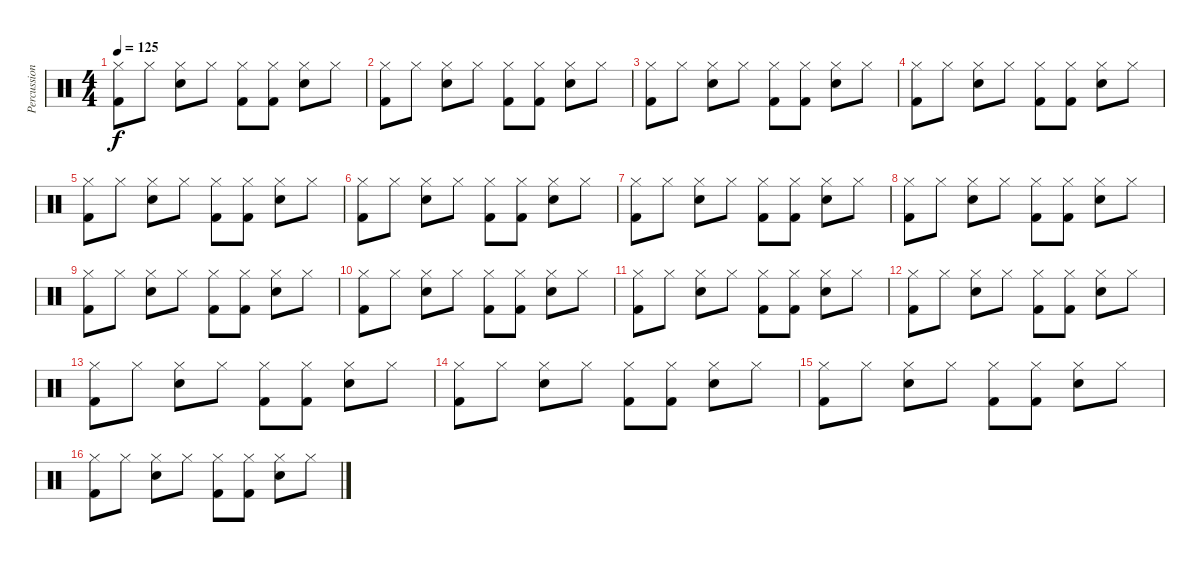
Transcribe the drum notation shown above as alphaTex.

\track ("Percussion" "Percussion") {instrument percussion}
\staff {score}
\articulation defaults
\ts (4 4)
\tempo 125
\clef neutral
\ks c
("Hi-Hat (closed)" "Kick (hit) 2").8{dy f} "Hi-Hat (closed)".8 ("Hi-Hat (closed)" "Snare (hit) 2").8 "Hi-Hat (closed)".8 ("Hi-Hat (closed)" "Kick (hit) 2").8 ("Hi-Hat (closed)" "Kick (hit) 2").8 ("Hi-Hat (closed)" "Snare (hit) 2").8 "Hi-Hat (closed)".8 |
("Hi-Hat (closed)" "Kick (hit) 2").8 "Hi-Hat (closed)".8 ("Hi-Hat (closed)" "Snare (hit) 2").8 "Hi-Hat (closed)".8 ("Hi-Hat (closed)" "Kick (hit) 2").8 ("Hi-Hat (closed)" "Kick (hit) 2").8 ("Hi-Hat (closed)" "Snare (hit) 2").8 "Hi-Hat (closed)".8 |
("Hi-Hat (closed)" "Kick (hit) 2").8 "Hi-Hat (closed)".8 ("Hi-Hat (closed)" "Snare (hit) 2").8 "Hi-Hat (closed)".8 ("Hi-Hat (closed)" "Kick (hit) 2").8 ("Hi-Hat (closed)" "Kick (hit) 2").8 ("Hi-Hat (closed)" "Snare (hit) 2").8 "Hi-Hat (closed)".8 |
("Hi-Hat (closed)" "Kick (hit) 2").8 "Hi-Hat (closed)".8 ("Hi-Hat (closed)" "Snare (hit) 2").8 "Hi-Hat (closed)".8 ("Hi-Hat (closed)" "Kick (hit) 2").8 ("Hi-Hat (closed)" "Kick (hit) 2").8 ("Hi-Hat (closed)" "Snare (hit) 2").8 "Hi-Hat (closed)".8 |
("Hi-Hat (closed)" "Kick (hit) 2").8 "Hi-Hat (closed)".8 ("Hi-Hat (closed)" "Snare (hit) 2").8 "Hi-Hat (closed)".8 ("Hi-Hat (closed)" "Kick (hit) 2").8 ("Hi-Hat (closed)" "Kick (hit) 2").8 ("Hi-Hat (closed)" "Snare (hit) 2").8 "Hi-Hat (closed)".8 |
("Hi-Hat (closed)" "Kick (hit) 2").8 "Hi-Hat (closed)".8 ("Hi-Hat (closed)" "Snare (hit) 2").8 "Hi-Hat (closed)".8 ("Hi-Hat (closed)" "Kick (hit) 2").8 ("Hi-Hat (closed)" "Kick (hit) 2").8 ("Hi-Hat (closed)" "Snare (hit) 2").8 "Hi-Hat (closed)".8 |
("Hi-Hat (closed)" "Kick (hit) 2").8 "Hi-Hat (closed)".8 ("Hi-Hat (closed)" "Snare (hit) 2").8 "Hi-Hat (closed)".8 ("Hi-Hat (closed)" "Kick (hit) 2").8 ("Hi-Hat (closed)" "Kick (hit) 2").8 ("Hi-Hat (closed)" "Snare (hit) 2").8 "Hi-Hat (closed)".8 |
("Hi-Hat (closed)" "Kick (hit) 2").8 "Hi-Hat (closed)".8 ("Hi-Hat (closed)" "Snare (hit) 2").8 "Hi-Hat (closed)".8 ("Hi-Hat (closed)" "Kick (hit) 2").8 ("Hi-Hat (closed)" "Kick (hit) 2").8 ("Hi-Hat (closed)" "Snare (hit) 2").8 "Hi-Hat (closed)".8 |
("Hi-Hat (closed)" "Kick (hit) 2").8 "Hi-Hat (closed)".8 ("Hi-Hat (closed)" "Snare (hit) 2").8 "Hi-Hat (closed)".8 ("Hi-Hat (closed)" "Kick (hit) 2").8 ("Hi-Hat (closed)" "Kick (hit) 2").8 ("Hi-Hat (closed)" "Snare (hit) 2").8 "Hi-Hat (closed)".8 |
("Hi-Hat (closed)" "Kick (hit) 2").8 "Hi-Hat (closed)".8 ("Hi-Hat (closed)" "Snare (hit) 2").8 "Hi-Hat (closed)".8 ("Hi-Hat (closed)" "Kick (hit) 2").8 ("Hi-Hat (closed)" "Kick (hit) 2").8 ("Hi-Hat (closed)" "Snare (hit) 2").8 "Hi-Hat (closed)".8 |
("Hi-Hat (closed)" "Kick (hit) 2").8 "Hi-Hat (closed)".8 ("Hi-Hat (closed)" "Snare (hit) 2").8 "Hi-Hat (closed)".8 ("Hi-Hat (closed)" "Kick (hit) 2").8 ("Hi-Hat (closed)" "Kick (hit) 2").8 ("Hi-Hat (closed)" "Snare (hit) 2").8 "Hi-Hat (closed)".8 |
("Hi-Hat (closed)" "Kick (hit) 2").8 "Hi-Hat (closed)".8 ("Hi-Hat (closed)" "Snare (hit) 2").8 "Hi-Hat (closed)".8 ("Hi-Hat (closed)" "Kick (hit) 2").8 ("Hi-Hat (closed)" "Kick (hit) 2").8 ("Hi-Hat (closed)" "Snare (hit) 2").8 "Hi-Hat (closed)".8 |
("Hi-Hat (closed)" "Kick (hit) 2").8 "Hi-Hat (closed)".8 ("Hi-Hat (closed)" "Snare (hit) 2").8 "Hi-Hat (closed)".8 ("Hi-Hat (closed)" "Kick (hit) 2").8 ("Hi-Hat (closed)" "Kick (hit) 2").8 ("Hi-Hat (closed)" "Snare (hit) 2").8 "Hi-Hat (closed)".8 |
("Hi-Hat (closed)" "Kick (hit) 2").8 "Hi-Hat (closed)".8 ("Hi-Hat (closed)" "Snare (hit) 2").8 "Hi-Hat (closed)".8 ("Hi-Hat (closed)" "Kick (hit) 2").8 ("Hi-Hat (closed)" "Kick (hit) 2").8 ("Hi-Hat (closed)" "Snare (hit) 2").8 "Hi-Hat (closed)".8 |
("Hi-Hat (closed)" "Kick (hit) 2").8 "Hi-Hat (closed)".8 ("Hi-Hat (closed)" "Snare (hit) 2").8 "Hi-Hat (closed)".8 ("Hi-Hat (closed)" "Kick (hit) 2").8 ("Hi-Hat (closed)" "Kick (hit) 2").8 ("Hi-Hat (closed)" "Snare (hit) 2").8 "Hi-Hat (closed)".8 |
("Hi-Hat (closed)" "Kick (hit) 2").8 "Hi-Hat (closed)".8 ("Hi-Hat (closed)" "Snare (hit) 2").8 "Hi-Hat (closed)".8 ("Hi-Hat (closed)" "Kick (hit) 2").8 ("Hi-Hat (closed)" "Kick (hit) 2").8 ("Hi-Hat (closed)" "Snare (hit) 2").8 "Hi-Hat (closed)".8
